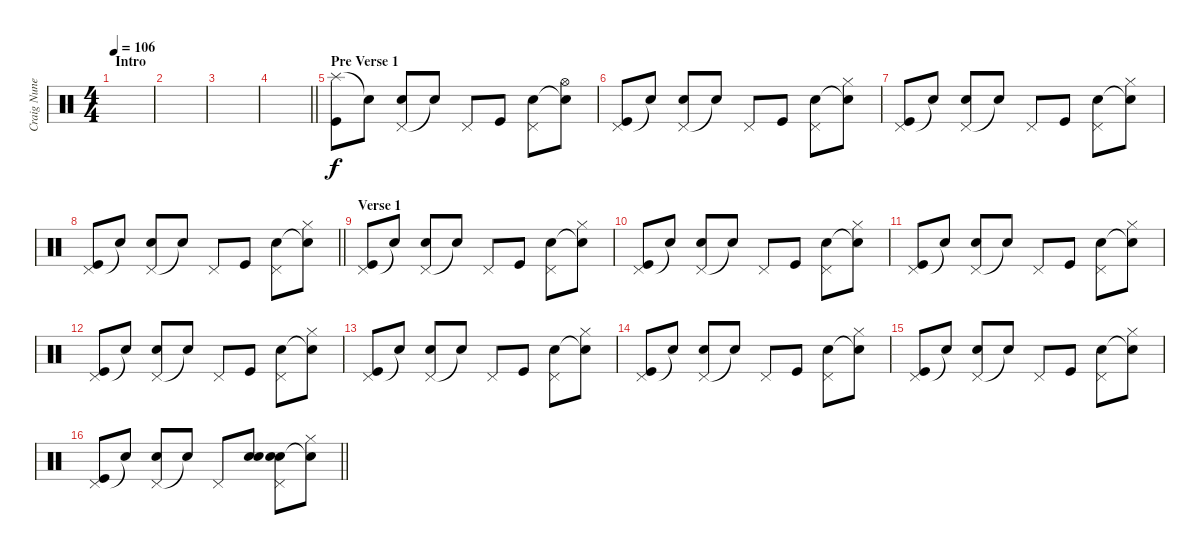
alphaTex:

\track ("Craig Nunenmacher (Drums)" "Craig Nune") {instrument percussion}
\staff {score}
\articulation defaults
\ts (4 4)
\section ("" "Intro")
\tempo 106
\clef neutral
\ks c
|
|
|
\barLineRight lightlight
|
\section ("" "Pre Verse 1")
("Splash (hit)" "Kick (hit)").8 "Snare (hit)"{t}.8 ("Pedal Hi-Hat (hit)" "Electric Snare (hit)").8 "Snare (hit)"{t}.8 "Pedal Hi-Hat (hit)".8 "Kick (hit)".8 ("Pedal Hi-Hat (hit)" "Electric Snare (hit)").8 ("Hi-Hat (open)" "Snare (hit)"{t}).8 |
("Pedal Hi-Hat (hit)" "Kick (hit)").8 "Snare (hit)"{t}.8 ("Pedal Hi-Hat (hit)" "Electric Snare (hit)").8 "Snare (hit)"{t}.8 "Pedal Hi-Hat (hit)".8 "Kick (hit)".8 ("Pedal Hi-Hat (hit)" "Electric Snare (hit)").8 ("Hi-Hat (closed)" "Snare (hit)"{t}).8 |
("Pedal Hi-Hat (hit)" "Kick (hit)").8 "Snare (hit)"{t}.8 ("Pedal Hi-Hat (hit)" "Electric Snare (hit)").8 "Snare (hit)"{t}.8 "Pedal Hi-Hat (hit)".8 "Kick (hit)".8 ("Pedal Hi-Hat (hit)" "Electric Snare (hit)").8 ("Hi-Hat (closed)" "Snare (hit)"{t}).8 |
\barLineRight lightlight
("Pedal Hi-Hat (hit)" "Kick (hit)").8 "Snare (hit)"{t}.8 ("Pedal Hi-Hat (hit)" "Electric Snare (hit)").8 "Snare (hit)"{t}.8 "Pedal Hi-Hat (hit)".8 "Kick (hit)".8 ("Pedal Hi-Hat (hit)" "Electric Snare (hit)").8 ("Hi-Hat (closed)" "Snare (hit)"{t}).8 |
\section ("" "Verse 1")
("Pedal Hi-Hat (hit)" "Kick (hit)").8 "Snare (hit)"{t}.8 ("Pedal Hi-Hat (hit)" "Electric Snare (hit)").8 "Snare (hit)"{t}.8 "Pedal Hi-Hat (hit)".8 "Kick (hit)".8 ("Pedal Hi-Hat (hit)" "Electric Snare (hit)").8 ("Hi-Hat (closed)" "Snare (hit)"{t}).8 |
("Pedal Hi-Hat (hit)" "Kick (hit)").8 "Snare (hit)"{t}.8 ("Pedal Hi-Hat (hit)" "Electric Snare (hit)").8 "Snare (hit)"{t}.8 "Pedal Hi-Hat (hit)".8 "Kick (hit)".8 ("Pedal Hi-Hat (hit)" "Electric Snare (hit)").8 ("Hi-Hat (closed)" "Snare (hit)"{t}).8 |
("Pedal Hi-Hat (hit)" "Kick (hit)").8 "Snare (hit)"{t}.8 ("Pedal Hi-Hat (hit)" "Electric Snare (hit)").8 "Snare (hit)"{t}.8 "Pedal Hi-Hat (hit)".8 "Kick (hit)".8 ("Pedal Hi-Hat (hit)" "Electric Snare (hit)").8 ("Hi-Hat (closed)" "Snare (hit)"{t}).8 |
("Pedal Hi-Hat (hit)" "Kick (hit)").8 "Snare (hit)"{t}.8 ("Pedal Hi-Hat (hit)" "Electric Snare (hit)").8 "Snare (hit)"{t}.8 "Pedal Hi-Hat (hit)".8 "Kick (hit)".8 ("Pedal Hi-Hat (hit)" "Electric Snare (hit)").8 ("Hi-Hat (closed)" "Snare (hit)"{t}).8 |
("Pedal Hi-Hat (hit)" "Kick (hit)").8 "Snare (hit)"{t}.8 ("Pedal Hi-Hat (hit)" "Electric Snare (hit)").8 "Snare (hit)"{t}.8 "Pedal Hi-Hat (hit)".8 "Kick (hit)".8 ("Pedal Hi-Hat (hit)" "Electric Snare (hit)").8 ("Hi-Hat (closed)" "Snare (hit)"{t}).8 |
("Pedal Hi-Hat (hit)" "Kick (hit)").8 "Snare (hit)"{t}.8 ("Pedal Hi-Hat (hit)" "Electric Snare (hit)").8 "Snare (hit)"{t}.8 "Pedal Hi-Hat (hit)".8 "Kick (hit)".8 ("Pedal Hi-Hat (hit)" "Electric Snare (hit)").8 ("Hi-Hat (closed)" "Snare (hit)"{t}).8 |
("Pedal Hi-Hat (hit)" "Kick (hit)").8 "Snare (hit)"{t}.8 ("Pedal Hi-Hat (hit)" "Electric Snare (hit)").8 "Snare (hit)"{t}.8 "Pedal Hi-Hat (hit)".8 "Kick (hit)".8 ("Pedal Hi-Hat (hit)" "Electric Snare (hit)").8 ("Hi-Hat (closed)" "Snare (hit)"{t}).8 |
\barLineRight lightlight
("Pedal Hi-Hat (hit)" "Kick (hit)").8 "Snare (hit)"{t}.8 ("Pedal Hi-Hat (hit)" "Electric Snare (hit)").8 "Snare (hit)"{t}.8 "Pedal Hi-Hat (hit)".8 ("Electric Snare (hit)" "Electric Snare (hit)").8 ("Pedal Hi-Hat (hit)" "Electric Snare (hit)" "Electric Snare (hit)").8 ("Hi-Hat (closed)" "Snare (hit)"{t}).8
